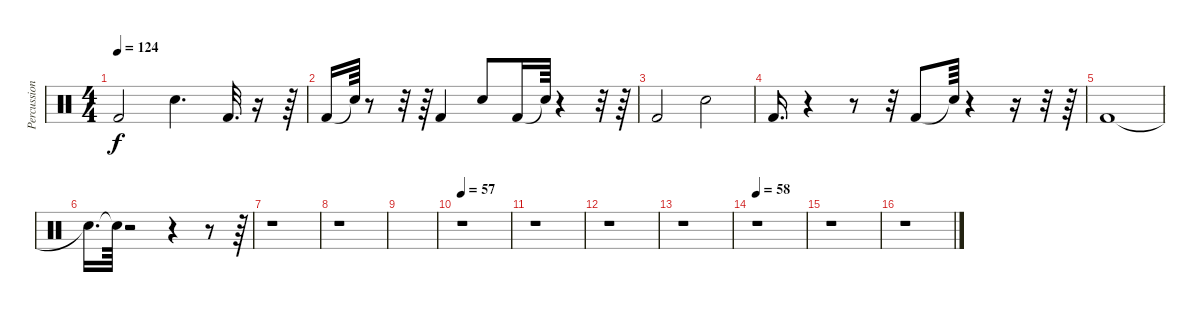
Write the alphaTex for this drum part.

\track ("Percussion" "Percussion") {instrument percussion}
\staff {score}
\articulation defaults
\ts (4 4)
\tempo 124
\clef neutral
\ks c "Kick (hit) 2".2{dy f} "Electric Snare (hit)".4{d} "Kick (hit) 2".32{d}
r.16 r.64 |
"Kick (hit) 2".16 "Snare (hit)"{t}.64 r.8 r.32 r.64 "Kick (hit) 2".4 "Electric Snare (hit)".8 "Kick (hit) 2".16 "Snare (hit)"{t}.64 r.4 r.32 r.64 |
"Kick (hit) 2".2 "Electric Snare (hit)".2 |
"Kick (hit) 2".16{d} r.4 r.8 r.32 "Kick (hit) 2".8 "Snare (hit)"{t}.64 r.4 r.16 r.32 r.64 |
"Kick (hit) 2".1 |
"Snare (hit)"{t}.16{d} "Snare (hit)"{t}.64 r.2 r.4 r.8 r.64 |
r.1 |
r.1 |
|
\tempo 51
\tempo 57
r.1{volume 12} |
r.1 |
r.1 |
r.1 |
\tempo 58
r.1 |
r.1 |
r.1
